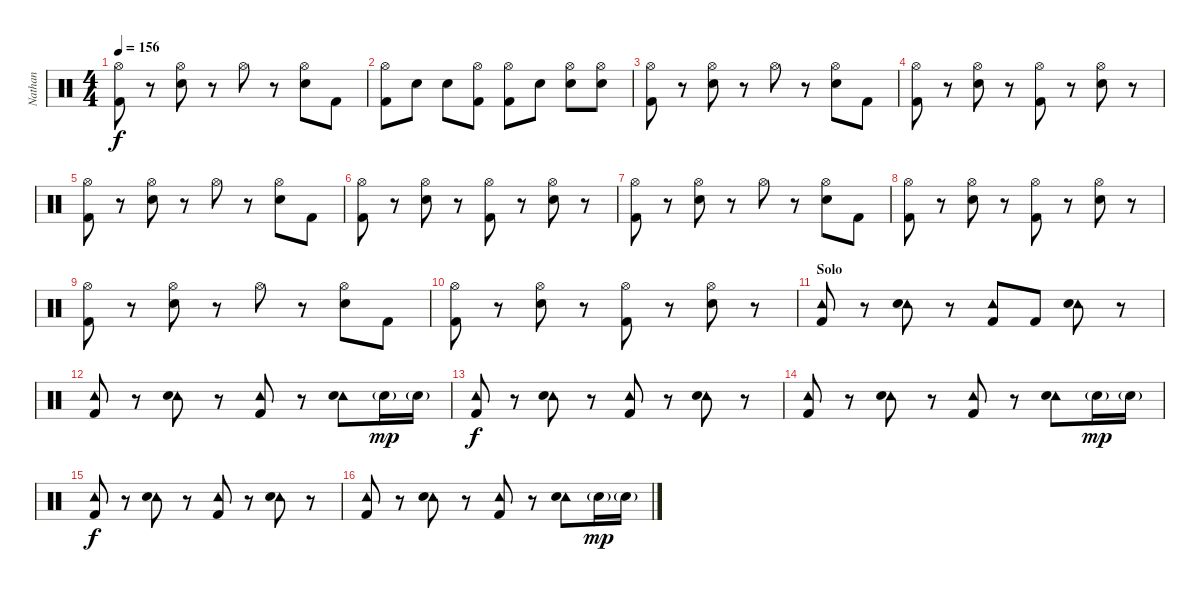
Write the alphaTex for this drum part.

\track ("Nathan" "Nathan") {instrument percussion}
\staff {score}
\articulation defaults
\ts (4 4)
\tempo 156
\clef neutral
\ks c
("Hi-Hat (open)" "Kick (hit) 2").8{dy f} r.8 ("Hi-Hat (open)" "Electric Snare (hit)").8 r.8 "Hi-Hat (open)".8 r.8 ("Hi-Hat (open)" "Electric Snare (hit)").8 "Kick (hit) 2".8 |
("Hi-Hat (open)" "Kick (hit) 2").8 "Electric Snare (hit)".8 "Electric Snare (hit)".8 ("Hi-Hat (open)" "Kick (hit) 2").8 ("Hi-Hat (open)" "Kick (hit) 2").8 "Electric Snare (hit)".8 ("Hi-Hat (open)" "Electric Snare (hit)").8 ("Hi-Hat (open)" "Electric Snare (hit)").8 |
("Hi-Hat (open)" "Kick (hit) 2").8 r.8 ("Hi-Hat (open)" "Electric Snare (hit)").8 r.8 "Hi-Hat (open)".8 r.8 ("Hi-Hat (open)" "Electric Snare (hit)").8 "Kick (hit) 2".8 |
("Hi-Hat (open)" "Kick (hit) 2").8 r.8 ("Hi-Hat (open)" "Electric Snare (hit)").8 r.8 ("Hi-Hat (open)" "Kick (hit) 2").8 r.8 ("Hi-Hat (open)" "Electric Snare (hit)").8 r.8 |
("Hi-Hat (open)" "Kick (hit) 2").8 r.8 ("Hi-Hat (open)" "Electric Snare (hit)").8 r.8 "Hi-Hat (open)".8 r.8 ("Hi-Hat (open)" "Electric Snare (hit)").8 "Kick (hit) 2".8 |
("Hi-Hat (open)" "Kick (hit) 2").8 r.8 ("Hi-Hat (open)" "Electric Snare (hit)").8 r.8 ("Hi-Hat (open)" "Kick (hit) 2").8 r.8 ("Hi-Hat (open)" "Electric Snare (hit)").8 r.8 |
("Hi-Hat (open)" "Kick (hit) 2").8 r.8 ("Hi-Hat (open)" "Electric Snare (hit)").8 r.8 "Hi-Hat (open)".8 r.8 ("Hi-Hat (open)" "Electric Snare (hit)").8 "Kick (hit) 2".8 |
("Hi-Hat (open)" "Kick (hit) 2").8 r.8 ("Hi-Hat (open)" "Electric Snare (hit)").8 r.8 ("Hi-Hat (open)" "Kick (hit) 2").8 r.8 ("Hi-Hat (open)" "Electric Snare (hit)").8 r.8 |
("Hi-Hat (open)" "Kick (hit) 2").8 r.8 ("Hi-Hat (open)" "Electric Snare (hit)").8 r.8 "Hi-Hat (open)".8 r.8 ("Hi-Hat (open)" "Electric Snare (hit)").8 "Kick (hit) 2".8 |
("Hi-Hat (open)" "Kick (hit) 2").8 r.8 ("Hi-Hat (open)" "Electric Snare (hit)").8 r.8 ("Hi-Hat (open)" "Kick (hit) 2").8 r.8 ("Hi-Hat (open)" "Electric Snare (hit)").8 r.8 |
\section ("" "Solo")
("Tambourine (hit)" "Kick (hit) 2").8 r.8 ("Tambourine (hit)" "Electric Snare (hit)").8 r.8 ("Tambourine (hit)" "Kick (hit) 2").8 "Kick (hit) 2".8 ("Tambourine (hit)" "Electric Snare (hit)").8 r.8 |
("Tambourine (hit)" "Kick (hit) 2").8 r.8 ("Tambourine (hit)" "Electric Snare (hit)").8 r.8 ("Tambourine (hit)" "Kick (hit) 2").8 r.8 ("Tambourine (hit)" "Electric Snare (hit)").8 "Electric Snare (hit)"{g}.16{dy mp} "Electric Snare (hit)"{g}.16 |
("Tambourine (hit)" "Kick (hit) 2").8{dy f} r.8 ("Tambourine (hit)" "Electric Snare (hit)").8 r.8 ("Tambourine (hit)" "Kick (hit) 2").8 r.8 ("Tambourine (hit)" "Electric Snare (hit)").8 r.8 |
("Tambourine (hit)" "Kick (hit) 2").8 r.8 ("Tambourine (hit)" "Electric Snare (hit)").8 r.8 ("Tambourine (hit)" "Kick (hit) 2").8 r.8 ("Tambourine (hit)" "Electric Snare (hit)").8 "Electric Snare (hit)"{g}.16{dy mp} "Electric Snare (hit)"{g}.16 |
("Tambourine (hit)" "Kick (hit) 2").8{dy f} r.8 ("Tambourine (hit)" "Electric Snare (hit)").8 r.8 ("Tambourine (hit)" "Kick (hit) 2").8 r.8 ("Tambourine (hit)" "Electric Snare (hit)").8 r.8 |
("Tambourine (hit)" "Kick (hit) 2").8 r.8 ("Tambourine (hit)" "Electric Snare (hit)").8 r.8 ("Tambourine (hit)" "Kick (hit) 2").8 r.8 ("Tambourine (hit)" "Electric Snare (hit)").8 "Electric Snare (hit)"{g}.16{dy mp} "Electric Snare (hit)"{g}.16
